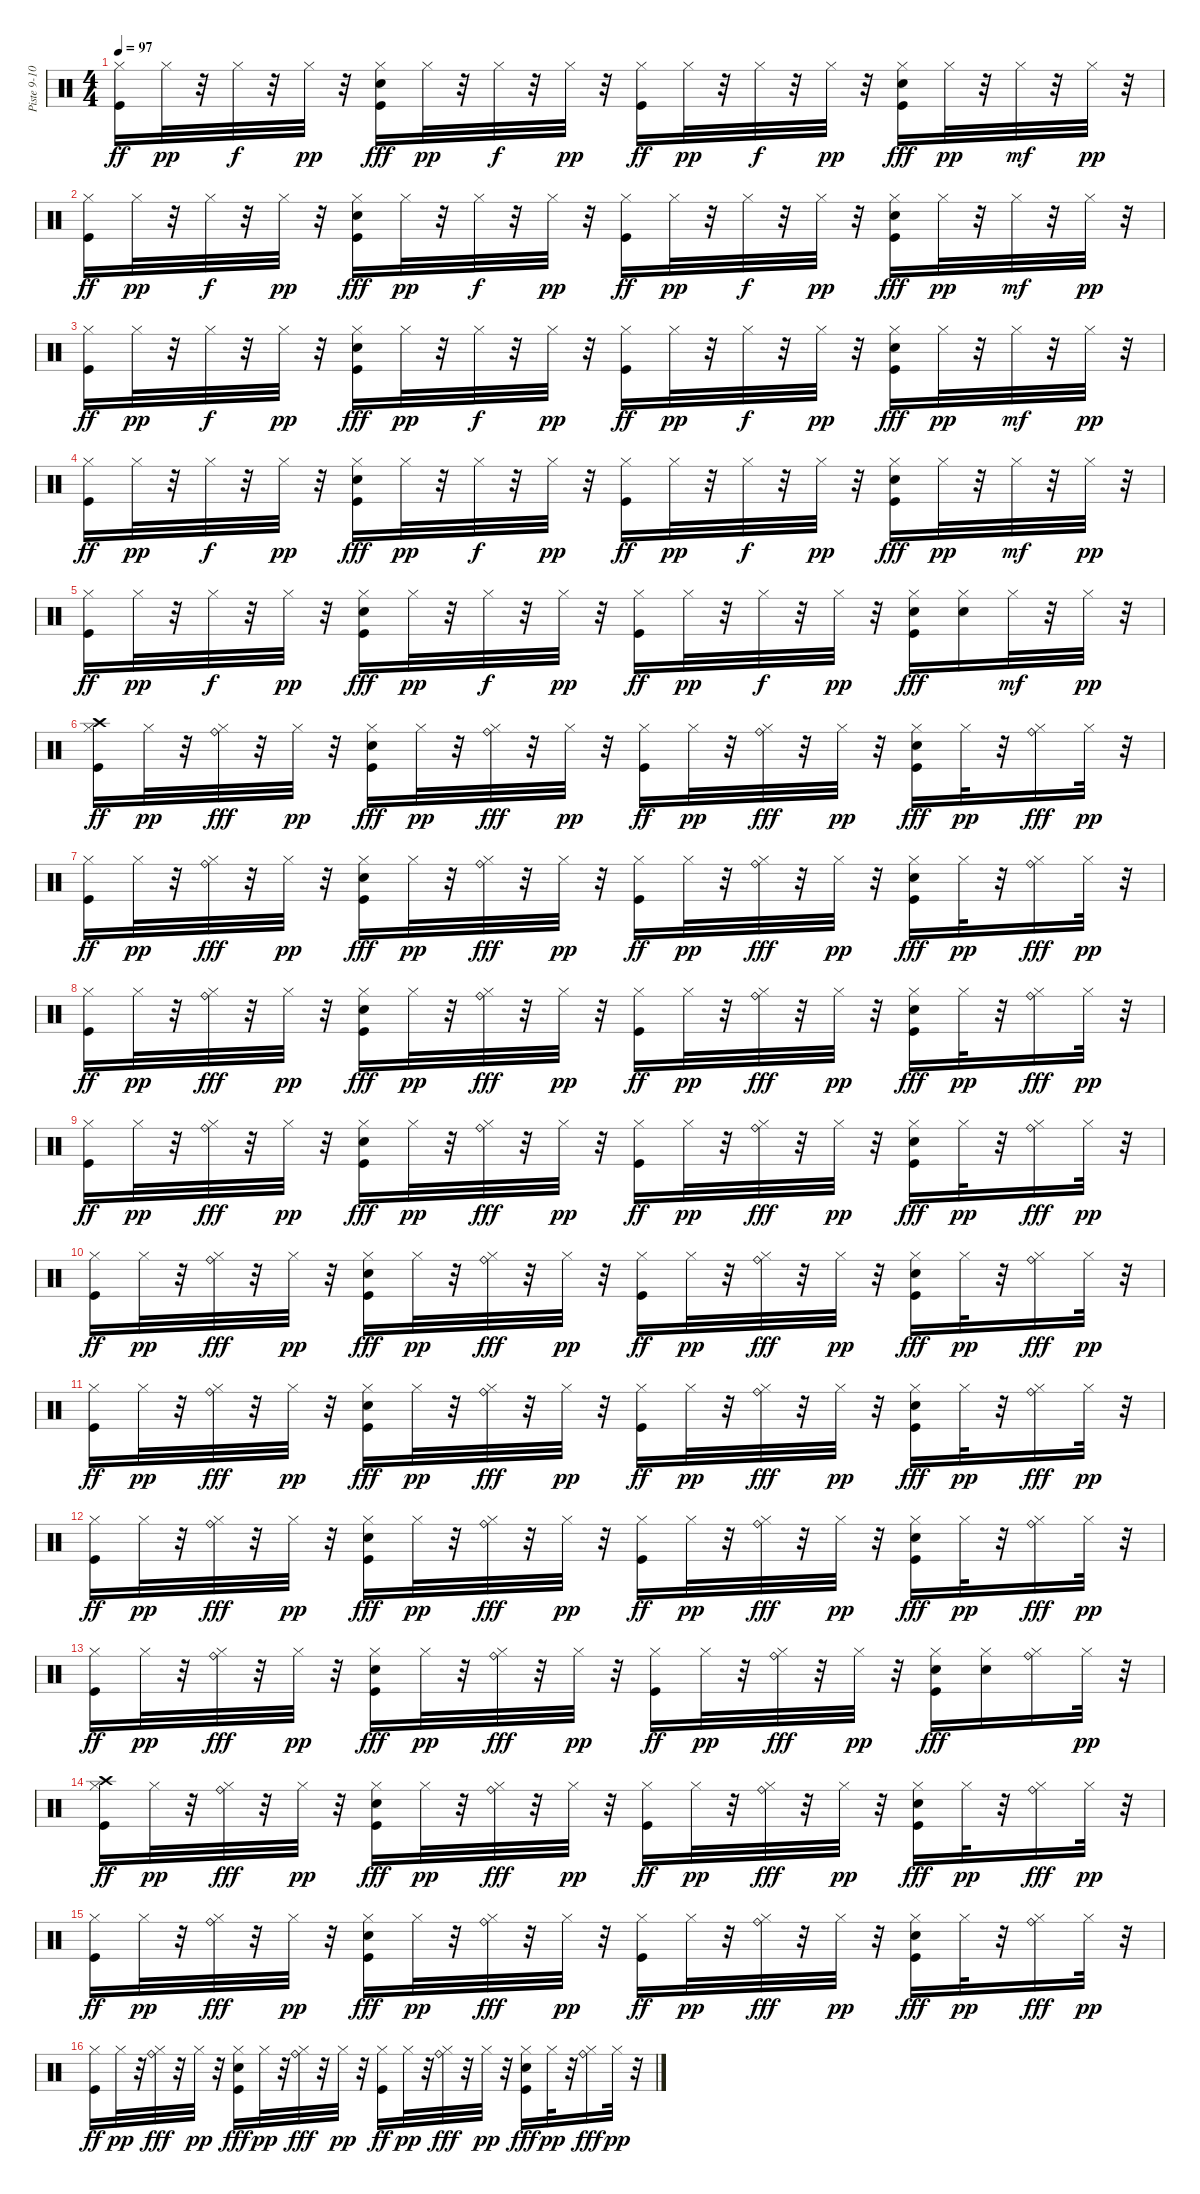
\track ("Piste 9-10-11-12-13-14" "Piste 9-10") {instrument percussion}
\staff {score}
\articulation defaults
\ts (4 4)
\tempo 97
\clef neutral
\ks c
("Hi-Hat (closed)" "Kick (hit)").16{dy ff} "Hi-Hat (closed)".32{dy pp} r.32 "Hi-Hat (closed)".32{dy f} r.32 "Hi-Hat (closed)".32{dy pp} r.32 ("Hi-Hat (closed)" "Snare (hit) 2" "Kick (hit)").16{dy fff} "Hi-Hat (closed)".32{dy pp} r.32 "Hi-Hat (closed)".32{dy f} r.32 "Hi-Hat (closed)".32{dy pp} r.32 ("Hi-Hat (closed)" "Kick (hit)").16{dy ff} "Hi-Hat (closed)".32{dy pp} r.32 "Hi-Hat (closed)".32{dy f} r.32 "Hi-Hat (closed)".32{dy pp} r.32 ("Hi-Hat (closed)" "Snare (hit) 2" "Kick (hit)").16{dy fff} "Hi-Hat (closed)".32{dy pp} r.32 "Hi-Hat (closed)".32{dy mf} r.32 "Hi-Hat (closed)".32{dy pp} r.32 |
("Hi-Hat (closed)" "Kick (hit)").16{dy ff} "Hi-Hat (closed)".32{dy pp} r.32 "Hi-Hat (closed)".32{dy f} r.32 "Hi-Hat (closed)".32{dy pp} r.32 ("Hi-Hat (closed)" "Snare (hit) 2" "Kick (hit)").16{dy fff} "Hi-Hat (closed)".32{dy pp} r.32 "Hi-Hat (closed)".32{dy f} r.32 "Hi-Hat (closed)".32{dy pp} r.32 ("Hi-Hat (closed)" "Kick (hit)").16{dy ff} "Hi-Hat (closed)".32{dy pp} r.32 "Hi-Hat (closed)".32{dy f} r.32 "Hi-Hat (closed)".32{dy pp} r.32 ("Hi-Hat (closed)" "Snare (hit) 2" "Kick (hit)").16{dy fff} "Hi-Hat (closed)".32{dy pp} r.32 "Hi-Hat (closed)".32{dy mf} r.32 "Hi-Hat (closed)".32{dy pp} r.32 |
("Hi-Hat (closed)" "Kick (hit)").16{dy ff} "Hi-Hat (closed)".32{dy pp} r.32 "Hi-Hat (closed)".32{dy f} r.32 "Hi-Hat (closed)".32{dy pp} r.32 ("Hi-Hat (closed)" "Snare (hit) 2" "Kick (hit)").16{dy fff} "Hi-Hat (closed)".32{dy pp} r.32 "Hi-Hat (closed)".32{dy f} r.32 "Hi-Hat (closed)".32{dy pp} r.32 ("Hi-Hat (closed)" "Kick (hit)").16{dy ff} "Hi-Hat (closed)".32{dy pp} r.32 "Hi-Hat (closed)".32{dy f} r.32 "Hi-Hat (closed)".32{dy pp} r.32 ("Hi-Hat (closed)" "Snare (hit) 2" "Kick (hit)").16{dy fff} "Hi-Hat (closed)".32{dy pp} r.32 "Hi-Hat (closed)".32{dy mf} r.32 "Hi-Hat (closed)".32{dy pp} r.32 |
("Hi-Hat (closed)" "Kick (hit)").16{dy ff} "Hi-Hat (closed)".32{dy pp} r.32 "Hi-Hat (closed)".32{dy f} r.32 "Hi-Hat (closed)".32{dy pp} r.32 ("Hi-Hat (closed)" "Snare (hit) 2" "Kick (hit)").16{dy fff} "Hi-Hat (closed)".32{dy pp} r.32 "Hi-Hat (closed)".32{dy f} r.32 "Hi-Hat (closed)".32{dy pp} r.32 ("Hi-Hat (closed)" "Kick (hit)").16{dy ff} "Hi-Hat (closed)".32{dy pp} r.32 "Hi-Hat (closed)".32{dy f} r.32 "Hi-Hat (closed)".32{dy pp} r.32 ("Hi-Hat (closed)" "Snare (hit) 2" "Kick (hit)").16{dy fff} "Hi-Hat (closed)".32{dy pp} r.32 "Hi-Hat (closed)".32{dy mf} r.32 "Hi-Hat (closed)".32{dy pp} r.32 |
("Hi-Hat (closed)" "Kick (hit)").16{dy ff} "Hi-Hat (closed)".32{dy pp} r.32 "Hi-Hat (closed)".32{dy f} r.32 "Hi-Hat (closed)".32{dy pp} r.32 ("Hi-Hat (closed)" "Snare (hit) 2" "Kick (hit)").16{dy fff} "Hi-Hat (closed)".32{dy pp} r.32 "Hi-Hat (closed)".32{dy f} r.32 "Hi-Hat (closed)".32{dy pp} r.32 ("Hi-Hat (closed)" "Kick (hit)").16{dy ff} "Hi-Hat (closed)".32{dy pp} r.32 "Hi-Hat (closed)".32{dy f} r.32 "Hi-Hat (closed)".32{dy pp} r.32 ("Hi-Hat (closed)" "Snare (hit) 2" "Kick (hit)").16{dy fff} ("Hi-Hat (closed)" "Snare (hit) 2").16 "Hi-Hat (closed)".32{dy mf} r.32 "Hi-Hat (closed)".32{dy pp} r.32 |
("Hi-Hat (closed)" "Crash high (hit)" "Kick (hit)").16{dy ff} "Hi-Hat (closed)".32{dy pp} r.32 ("Hi-Hat (closed)" "Ride (bell)").32{dy fff} r.32 "Hi-Hat (closed)".32{dy pp} r.32 ("Hi-Hat (closed)" "Snare (hit) 2" "Kick (hit)").16{dy fff} "Hi-Hat (closed)".32{dy pp} r.32 ("Hi-Hat (closed)" "Ride (bell)").32{dy fff} r.32 "Hi-Hat (closed)".32{dy pp} r.32 ("Hi-Hat (closed)" "Kick (hit)").16{dy ff} "Hi-Hat (closed)".32{dy pp} r.32 ("Hi-Hat (closed)" "Ride (bell)").32{dy fff} r.32 "Hi-Hat (closed)".32{dy pp} r.32 ("Hi-Hat (closed)" "Snare (hit) 2" "Kick (hit)").16{dy fff} "Hi-Hat (closed)".32{dy pp} r.32 ("Hi-Hat (closed)" "Ride (bell)").16{dy fff} "Hi-Hat (closed)".32{dy pp} r.32 |
("Hi-Hat (closed)" "Kick (hit)").16{dy ff} "Hi-Hat (closed)".32{dy pp} r.32 ("Hi-Hat (closed)" "Ride (bell)").32{dy fff} r.32 "Hi-Hat (closed)".32{dy pp} r.32 ("Hi-Hat (closed)" "Snare (hit) 2" "Kick (hit)").16{dy fff} "Hi-Hat (closed)".32{dy pp} r.32 ("Hi-Hat (closed)" "Ride (bell)").32{dy fff} r.32 "Hi-Hat (closed)".32{dy pp} r.32 ("Hi-Hat (closed)" "Kick (hit)").16{dy ff} "Hi-Hat (closed)".32{dy pp} r.32 ("Hi-Hat (closed)" "Ride (bell)").32{dy fff} r.32 "Hi-Hat (closed)".32{dy pp} r.32 ("Hi-Hat (closed)" "Snare (hit) 2" "Kick (hit)").16{dy fff} "Hi-Hat (closed)".32{dy pp} r.32 ("Hi-Hat (closed)" "Ride (bell)").16{dy fff} "Hi-Hat (closed)".32{dy pp} r.32 |
("Hi-Hat (closed)" "Kick (hit)").16{dy ff} "Hi-Hat (closed)".32{dy pp} r.32 ("Hi-Hat (closed)" "Ride (bell)").32{dy fff} r.32 "Hi-Hat (closed)".32{dy pp} r.32 ("Hi-Hat (closed)" "Snare (hit) 2" "Kick (hit)").16{dy fff} "Hi-Hat (closed)".32{dy pp} r.32 ("Hi-Hat (closed)" "Ride (bell)").32{dy fff} r.32 "Hi-Hat (closed)".32{dy pp} r.32 ("Hi-Hat (closed)" "Kick (hit)").16{dy ff} "Hi-Hat (closed)".32{dy pp} r.32 ("Hi-Hat (closed)" "Ride (bell)").32{dy fff} r.32 "Hi-Hat (closed)".32{dy pp} r.32 ("Hi-Hat (closed)" "Snare (hit) 2" "Kick (hit)").16{dy fff} "Hi-Hat (closed)".32{dy pp} r.32 ("Hi-Hat (closed)" "Ride (bell)").16{dy fff} "Hi-Hat (closed)".32{dy pp} r.32 |
("Hi-Hat (closed)" "Kick (hit)").16{dy ff} "Hi-Hat (closed)".32{dy pp} r.32 ("Hi-Hat (closed)" "Ride (bell)").32{dy fff} r.32 "Hi-Hat (closed)".32{dy pp} r.32 ("Hi-Hat (closed)" "Snare (hit) 2" "Kick (hit)").16{dy fff} "Hi-Hat (closed)".32{dy pp} r.32 ("Hi-Hat (closed)" "Ride (bell)").32{dy fff} r.32 "Hi-Hat (closed)".32{dy pp} r.32 ("Hi-Hat (closed)" "Kick (hit)").16{dy ff} "Hi-Hat (closed)".32{dy pp} r.32 ("Hi-Hat (closed)" "Ride (bell)").32{dy fff} r.32 "Hi-Hat (closed)".32{dy pp} r.32 ("Hi-Hat (closed)" "Snare (hit) 2" "Kick (hit)").16{dy fff} "Hi-Hat (closed)".32{dy pp} r.32 ("Hi-Hat (closed)" "Ride (bell)").16{dy fff} "Hi-Hat (closed)".32{dy pp} r.32 |
("Hi-Hat (closed)" "Kick (hit)").16{dy ff} "Hi-Hat (closed)".32{dy pp} r.32 ("Hi-Hat (closed)" "Ride (bell)").32{dy fff} r.32 "Hi-Hat (closed)".32{dy pp} r.32 ("Hi-Hat (closed)" "Snare (hit) 2" "Kick (hit)").16{dy fff} "Hi-Hat (closed)".32{dy pp} r.32 ("Hi-Hat (closed)" "Ride (bell)").32{dy fff} r.32 "Hi-Hat (closed)".32{dy pp} r.32 ("Hi-Hat (closed)" "Kick (hit)").16{dy ff} "Hi-Hat (closed)".32{dy pp} r.32 ("Hi-Hat (closed)" "Ride (bell)").32{dy fff} r.32 "Hi-Hat (closed)".32{dy pp} r.32 ("Hi-Hat (closed)" "Snare (hit) 2" "Kick (hit)").16{dy fff} "Hi-Hat (closed)".32{dy pp} r.32 ("Hi-Hat (closed)" "Ride (bell)").16{dy fff} "Hi-Hat (closed)".32{dy pp} r.32 |
("Hi-Hat (closed)" "Kick (hit)").16{dy ff} "Hi-Hat (closed)".32{dy pp} r.32 ("Hi-Hat (closed)" "Ride (bell)").32{dy fff} r.32 "Hi-Hat (closed)".32{dy pp} r.32 ("Hi-Hat (closed)" "Snare (hit) 2" "Kick (hit)").16{dy fff} "Hi-Hat (closed)".32{dy pp} r.32 ("Hi-Hat (closed)" "Ride (bell)").32{dy fff} r.32 "Hi-Hat (closed)".32{dy pp} r.32 ("Hi-Hat (closed)" "Kick (hit)").16{dy ff} "Hi-Hat (closed)".32{dy pp} r.32 ("Hi-Hat (closed)" "Ride (bell)").32{dy fff} r.32 "Hi-Hat (closed)".32{dy pp} r.32 ("Hi-Hat (closed)" "Snare (hit) 2" "Kick (hit)").16{dy fff} "Hi-Hat (closed)".32{dy pp} r.32 ("Hi-Hat (closed)" "Ride (bell)").16{dy fff} "Hi-Hat (closed)".32{dy pp} r.32 |
("Hi-Hat (closed)" "Kick (hit)").16{dy ff} "Hi-Hat (closed)".32{dy pp} r.32 ("Hi-Hat (closed)" "Ride (bell)").32{dy fff} r.32 "Hi-Hat (closed)".32{dy pp} r.32 ("Hi-Hat (closed)" "Snare (hit) 2" "Kick (hit)").16{dy fff} "Hi-Hat (closed)".32{dy pp} r.32 ("Hi-Hat (closed)" "Ride (bell)").32{dy fff} r.32 "Hi-Hat (closed)".32{dy pp} r.32 ("Hi-Hat (closed)" "Kick (hit)").16{dy ff} "Hi-Hat (closed)".32{dy pp} r.32 ("Hi-Hat (closed)" "Ride (bell)").32{dy fff} r.32 "Hi-Hat (closed)".32{dy pp} r.32 ("Hi-Hat (closed)" "Snare (hit) 2" "Kick (hit)").16{dy fff} "Hi-Hat (closed)".32{dy pp} r.32 ("Hi-Hat (closed)" "Ride (bell)").16{dy fff} "Hi-Hat (closed)".32{dy pp} r.32 |
("Hi-Hat (closed)" "Kick (hit)").16{dy ff} "Hi-Hat (closed)".32{dy pp} r.32 ("Hi-Hat (closed)" "Ride (bell)").32{dy fff} r.32 "Hi-Hat (closed)".32{dy pp} r.32 ("Hi-Hat (closed)" "Snare (hit) 2" "Kick (hit)").16{dy fff} "Hi-Hat (closed)".32{dy pp} r.32 ("Hi-Hat (closed)" "Ride (bell)").32{dy fff} r.32 "Hi-Hat (closed)".32{dy pp} r.32 ("Hi-Hat (closed)" "Kick (hit)").16{dy ff} "Hi-Hat (closed)".32{dy pp} r.32 ("Hi-Hat (closed)" "Ride (bell)").32{dy fff} r.32 "Hi-Hat (closed)".32{dy pp} r.32 ("Hi-Hat (closed)" "Snare (hit) 2" "Kick (hit)").16{dy fff} ("Hi-Hat (closed)" "Snare (hit) 2").16 ("Hi-Hat (closed)" "Ride (bell)").16 "Hi-Hat (closed)".32{dy pp} r.32 |
("Hi-Hat (closed)" "Crash high (hit)" "Kick (hit)").16{dy ff} "Hi-Hat (closed)".32{dy pp} r.32 ("Hi-Hat (closed)" "Ride (bell)").32{dy fff} r.32 "Hi-Hat (closed)".32{dy pp} r.32 ("Hi-Hat (closed)" "Snare (hit) 2" "Kick (hit)").16{dy fff} "Hi-Hat (closed)".32{dy pp} r.32 ("Hi-Hat (closed)" "Ride (bell)").32{dy fff} r.32 "Hi-Hat (closed)".32{dy pp} r.32 ("Hi-Hat (closed)" "Kick (hit)").16{dy ff} "Hi-Hat (closed)".32{dy pp} r.32 ("Hi-Hat (closed)" "Ride (bell)").32{dy fff} r.32 "Hi-Hat (closed)".32{dy pp} r.32 ("Hi-Hat (closed)" "Snare (hit) 2" "Kick (hit)").16{dy fff} "Hi-Hat (closed)".32{dy pp} r.32 ("Hi-Hat (closed)" "Ride (bell)").16{dy fff} "Hi-Hat (closed)".32{dy pp} r.32 |
("Hi-Hat (closed)" "Kick (hit)").16{dy ff} "Hi-Hat (closed)".32{dy pp} r.32 ("Hi-Hat (closed)" "Ride (bell)").32{dy fff} r.32 "Hi-Hat (closed)".32{dy pp} r.32 ("Hi-Hat (closed)" "Snare (hit) 2" "Kick (hit)").16{dy fff} "Hi-Hat (closed)".32{dy pp} r.32 ("Hi-Hat (closed)" "Ride (bell)").32{dy fff} r.32 "Hi-Hat (closed)".32{dy pp} r.32 ("Hi-Hat (closed)" "Kick (hit)").16{dy ff} "Hi-Hat (closed)".32{dy pp} r.32 ("Hi-Hat (closed)" "Ride (bell)").32{dy fff} r.32 "Hi-Hat (closed)".32{dy pp} r.32 ("Hi-Hat (closed)" "Snare (hit) 2" "Kick (hit)").16{dy fff} "Hi-Hat (closed)".32{dy pp} r.32 ("Hi-Hat (closed)" "Ride (bell)").16{dy fff} "Hi-Hat (closed)".32{dy pp} r.32 |
("Hi-Hat (closed)" "Kick (hit)").16{dy ff} "Hi-Hat (closed)".32{dy pp} r.32 ("Hi-Hat (closed)" "Ride (bell)").32{dy fff} r.32 "Hi-Hat (closed)".32{dy pp} r.32 ("Hi-Hat (closed)" "Snare (hit) 2" "Kick (hit)").16{dy fff} "Hi-Hat (closed)".32{dy pp} r.32 ("Hi-Hat (closed)" "Ride (bell)").32{dy fff} r.32 "Hi-Hat (closed)".32{dy pp} r.32 ("Hi-Hat (closed)" "Kick (hit)").16{dy ff} "Hi-Hat (closed)".32{dy pp} r.32 ("Hi-Hat (closed)" "Ride (bell)").32{dy fff} r.32 "Hi-Hat (closed)".32{dy pp} r.32 ("Hi-Hat (closed)" "Snare (hit) 2" "Kick (hit)").16{dy fff} "Hi-Hat (closed)".32{dy pp} r.32 ("Hi-Hat (closed)" "Ride (bell)").16{dy fff} "Hi-Hat (closed)".32{dy pp} r.32
